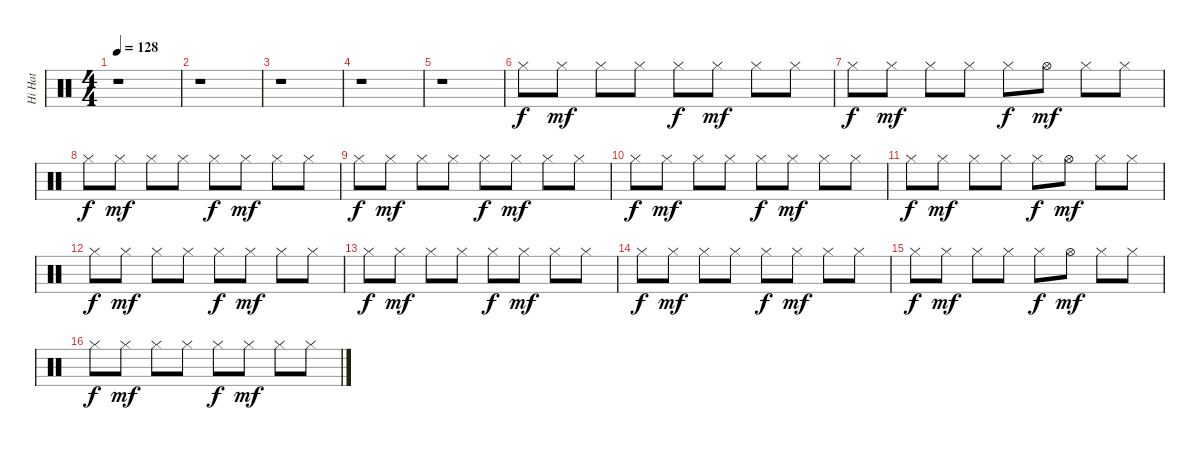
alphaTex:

\track ("Hi Hat" "Hi Hat") {instrument percussion}
\staff {score}
\articulation defaults
\ts (4 4)
\tempo 128
\clef neutral
\ks c
r.1{dy f} |
r.1 |
r.1 |
r.1 |
r.1 |
"Hi-Hat (closed)".8 "Hi-Hat (closed)".8{dy mf} "Hi-Hat (closed)".8 "Hi-Hat (closed)".8 "Hi-Hat (closed)".8{dy f} "Hi-Hat (closed)".8{dy mf} "Hi-Hat (closed)".8 "Hi-Hat (closed)".8 |
"Hi-Hat (closed)".8{dy f} "Hi-Hat (closed)".8{dy mf} "Hi-Hat (closed)".8 "Hi-Hat (closed)".8 "Hi-Hat (closed)".8{dy f} "Hi-Hat (open)".8{dy mf} "Hi-Hat (closed)".8 "Hi-Hat (closed)".8 |
"Hi-Hat (closed)".8{dy f} "Hi-Hat (closed)".8{dy mf} "Hi-Hat (closed)".8 "Hi-Hat (closed)".8 "Hi-Hat (closed)".8{dy f} "Hi-Hat (closed)".8{dy mf} "Hi-Hat (closed)".8 "Hi-Hat (closed)".8 |
"Hi-Hat (closed)".8{dy f} "Hi-Hat (closed)".8{dy mf} "Hi-Hat (closed)".8 "Hi-Hat (closed)".8 "Hi-Hat (closed)".8{dy f} "Hi-Hat (closed)".8{dy mf} "Hi-Hat (closed)".8 "Hi-Hat (closed)".8 |
"Hi-Hat (closed)".8{dy f} "Hi-Hat (closed)".8{dy mf} "Hi-Hat (closed)".8 "Hi-Hat (closed)".8 "Hi-Hat (closed)".8{dy f} "Hi-Hat (closed)".8{dy mf} "Hi-Hat (closed)".8 "Hi-Hat (closed)".8 |
"Hi-Hat (closed)".8{dy f} "Hi-Hat (closed)".8{dy mf} "Hi-Hat (closed)".8 "Hi-Hat (closed)".8 "Hi-Hat (closed)".8{dy f} "Hi-Hat (open)".8{dy mf} "Hi-Hat (closed)".8 "Hi-Hat (closed)".8 |
"Hi-Hat (closed)".8{dy f} "Hi-Hat (closed)".8{dy mf} "Hi-Hat (closed)".8 "Hi-Hat (closed)".8 "Hi-Hat (closed)".8{dy f} "Hi-Hat (closed)".8{dy mf} "Hi-Hat (closed)".8 "Hi-Hat (closed)".8 |
"Hi-Hat (closed)".8{dy f} "Hi-Hat (closed)".8{dy mf} "Hi-Hat (closed)".8 "Hi-Hat (closed)".8 "Hi-Hat (closed)".8{dy f} "Hi-Hat (closed)".8{dy mf} "Hi-Hat (closed)".8 "Hi-Hat (closed)".8 |
"Hi-Hat (closed)".8{dy f} "Hi-Hat (closed)".8{dy mf} "Hi-Hat (closed)".8 "Hi-Hat (closed)".8 "Hi-Hat (closed)".8{dy f} "Hi-Hat (closed)".8{dy mf} "Hi-Hat (closed)".8 "Hi-Hat (closed)".8 |
"Hi-Hat (closed)".8{dy f} "Hi-Hat (closed)".8{dy mf} "Hi-Hat (closed)".8 "Hi-Hat (closed)".8 "Hi-Hat (closed)".8{dy f} "Hi-Hat (open)".8{dy mf} "Hi-Hat (closed)".8 "Hi-Hat (closed)".8 |
"Hi-Hat (closed)".8{dy f} "Hi-Hat (closed)".8{dy mf} "Hi-Hat (closed)".8 "Hi-Hat (closed)".8 "Hi-Hat (closed)".8{dy f} "Hi-Hat (closed)".8{dy mf} "Hi-Hat (closed)".8 "Hi-Hat (closed)".8
